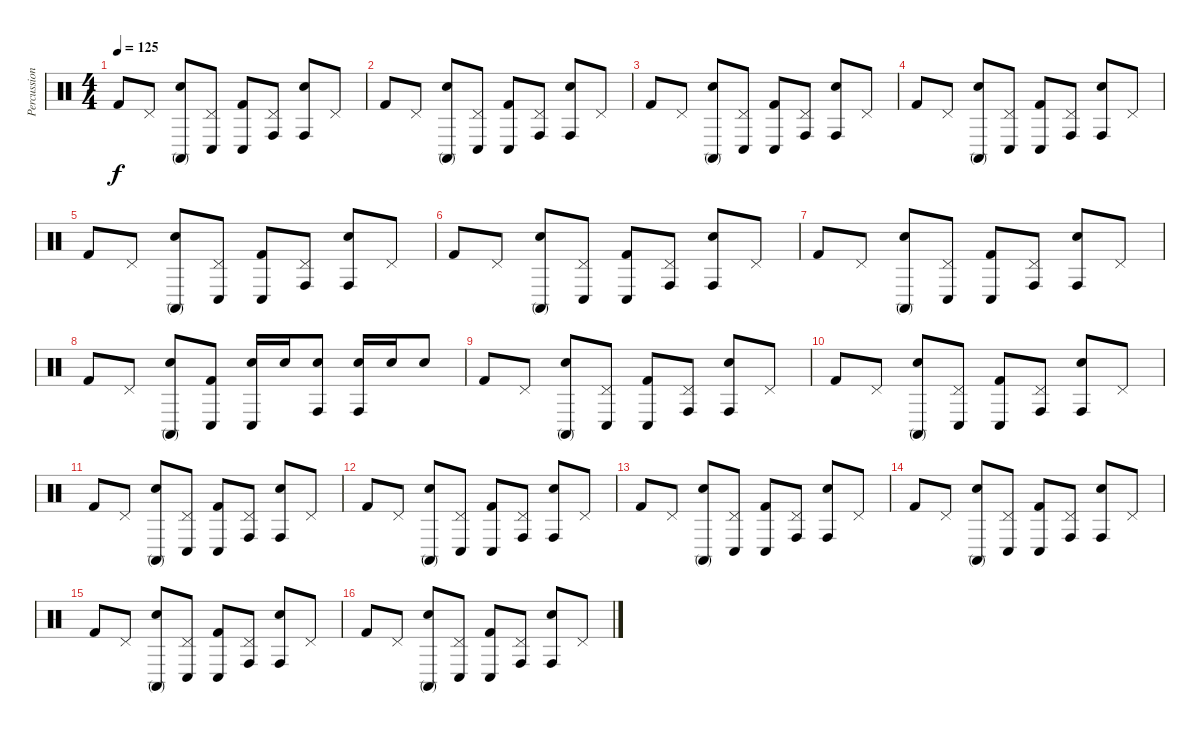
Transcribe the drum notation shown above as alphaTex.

\track ("Percussion" "Percussion") {instrument percussion}
\staff {score}
\articulation defaults
\ts (4 4)
\tempo 125
\clef neutral
\ks c "Kick (hit) 2".8{dy f} "Pedal Hi-Hat (hit)".8
("Snare (hit) 2" "Conga high (mute)").8 ("Pedal Hi-Hat (hit)" "Conga low (hit)").8 ("Kick (hit) 2" "Conga low (hit)").8 ("Pedal Hi-Hat (hit)" "Conga high (hit)").8 ("Snare (hit) 2" "Conga high (hit)").8 "Pedal Hi-Hat (hit)".8 |
"Kick (hit) 2".8 "Pedal Hi-Hat (hit)".8 ("Snare (hit) 2" "Conga high (mute)").8 ("Pedal Hi-Hat (hit)" "Conga low (hit)").8 ("Kick (hit) 2" "Conga low (hit)").8 ("Pedal Hi-Hat (hit)" "Conga high (hit)").8 ("Snare (hit) 2" "Conga high (hit)").8 "Pedal Hi-Hat (hit)".8 |
"Kick (hit) 2".8 "Pedal Hi-Hat (hit)".8 ("Snare (hit) 2" "Conga high (mute)").8 ("Pedal Hi-Hat (hit)" "Conga low (hit)").8 ("Kick (hit) 2" "Conga low (hit)").8 ("Pedal Hi-Hat (hit)" "Conga high (hit)").8 ("Snare (hit) 2" "Conga high (hit)").8 "Pedal Hi-Hat (hit)".8 |
"Kick (hit) 2".8 "Pedal Hi-Hat (hit)".8 ("Snare (hit) 2" "Conga high (mute)").8 ("Pedal Hi-Hat (hit)" "Conga low (hit)").8 ("Kick (hit) 2" "Conga low (hit)").8 ("Pedal Hi-Hat (hit)" "Conga high (hit)").8 ("Snare (hit) 2" "Conga high (hit)").8 "Pedal Hi-Hat (hit)".8 |
"Kick (hit) 2".8 "Pedal Hi-Hat (hit)".8 ("Snare (hit) 2" "Conga high (mute)").8 ("Pedal Hi-Hat (hit)" "Conga low (hit)").8 ("Kick (hit) 2" "Conga low (hit)").8 ("Pedal Hi-Hat (hit)" "Conga high (hit)").8 ("Snare (hit) 2" "Conga high (hit)").8 "Pedal Hi-Hat (hit)".8 |
"Kick (hit) 2".8 "Pedal Hi-Hat (hit)".8 ("Snare (hit) 2" "Conga high (mute)").8 ("Pedal Hi-Hat (hit)" "Conga low (hit)").8 ("Kick (hit) 2" "Conga low (hit)").8 ("Pedal Hi-Hat (hit)" "Conga high (hit)").8 ("Snare (hit) 2" "Conga high (hit)").8 "Pedal Hi-Hat (hit)".8 |
"Kick (hit) 2".8 "Pedal Hi-Hat (hit)".8 ("Snare (hit) 2" "Conga high (mute)").8 ("Pedal Hi-Hat (hit)" "Conga low (hit)").8 ("Kick (hit) 2" "Conga low (hit)").8 ("Pedal Hi-Hat (hit)" "Conga high (hit)").8 ("Snare (hit) 2" "Conga high (hit)").8 "Pedal Hi-Hat (hit)".8 |
"Kick (hit) 2".8 "Pedal Hi-Hat (hit)".8 ("Snare (hit) 2" "Conga high (mute)").8 ("Kick (hit) 2" "Conga low (hit)").8 ("Snare (hit) 2" "Conga low (hit)").16 "Snare (hit) 2".16 ("Snare (hit) 2" "Conga high (hit)").8 ("Snare (hit) 2" "Conga high (hit)").16 "Snare (hit) 2".16 "Snare (hit) 2".8 |
"Kick (hit) 2".8 "Pedal Hi-Hat (hit)".8 ("Snare (hit) 2" "Conga high (mute)").8 ("Pedal Hi-Hat (hit)" "Conga low (hit)").8 ("Kick (hit) 2" "Conga low (hit)").8 ("Pedal Hi-Hat (hit)" "Conga high (hit)").8 ("Snare (hit) 2" "Conga high (hit)").8 "Pedal Hi-Hat (hit)".8 |
"Kick (hit) 2".8 "Pedal Hi-Hat (hit)".8 ("Snare (hit) 2" "Conga high (mute)").8 ("Pedal Hi-Hat (hit)" "Conga low (hit)").8 ("Kick (hit) 2" "Conga low (hit)").8 ("Pedal Hi-Hat (hit)" "Conga high (hit)").8 ("Snare (hit) 2" "Conga high (hit)").8 "Pedal Hi-Hat (hit)".8 |
"Kick (hit) 2".8 "Pedal Hi-Hat (hit)".8 ("Snare (hit) 2" "Conga high (mute)").8 ("Pedal Hi-Hat (hit)" "Conga low (hit)").8 ("Kick (hit) 2" "Conga low (hit)").8 ("Pedal Hi-Hat (hit)" "Conga high (hit)").8 ("Snare (hit) 2" "Conga high (hit)").8 "Pedal Hi-Hat (hit)".8 |
"Kick (hit) 2".8 "Pedal Hi-Hat (hit)".8 ("Snare (hit) 2" "Conga high (mute)").8 ("Pedal Hi-Hat (hit)" "Conga low (hit)").8 ("Kick (hit) 2" "Conga low (hit)").8 ("Pedal Hi-Hat (hit)" "Conga high (hit)").8 ("Snare (hit) 2" "Conga high (hit)").8 "Pedal Hi-Hat (hit)".8 |
"Kick (hit) 2".8 "Pedal Hi-Hat (hit)".8 ("Snare (hit) 2" "Conga high (mute)").8 ("Pedal Hi-Hat (hit)" "Conga low (hit)").8 ("Kick (hit) 2" "Conga low (hit)").8 ("Pedal Hi-Hat (hit)" "Conga high (hit)").8 ("Snare (hit) 2" "Conga high (hit)").8 "Pedal Hi-Hat (hit)".8 |
"Kick (hit) 2".8 "Pedal Hi-Hat (hit)".8 ("Snare (hit) 2" "Conga high (mute)").8 ("Pedal Hi-Hat (hit)" "Conga low (hit)").8 ("Kick (hit) 2" "Conga low (hit)").8 ("Pedal Hi-Hat (hit)" "Conga high (hit)").8 ("Snare (hit) 2" "Conga high (hit)").8 "Pedal Hi-Hat (hit)".8 |
"Kick (hit) 2".8 "Pedal Hi-Hat (hit)".8 ("Snare (hit) 2" "Conga high (mute)").8 ("Pedal Hi-Hat (hit)" "Conga low (hit)").8 ("Kick (hit) 2" "Conga low (hit)").8 ("Pedal Hi-Hat (hit)" "Conga high (hit)").8 ("Snare (hit) 2" "Conga high (hit)").8 "Pedal Hi-Hat (hit)".8 |
"Kick (hit) 2".8 "Pedal Hi-Hat (hit)".8 ("Snare (hit) 2" "Conga high (mute)").8 ("Pedal Hi-Hat (hit)" "Conga low (hit)").8 ("Kick (hit) 2" "Conga low (hit)").8 ("Pedal Hi-Hat (hit)" "Conga high (hit)").8 ("Snare (hit) 2" "Conga high (hit)").8 "Pedal Hi-Hat (hit)".8
